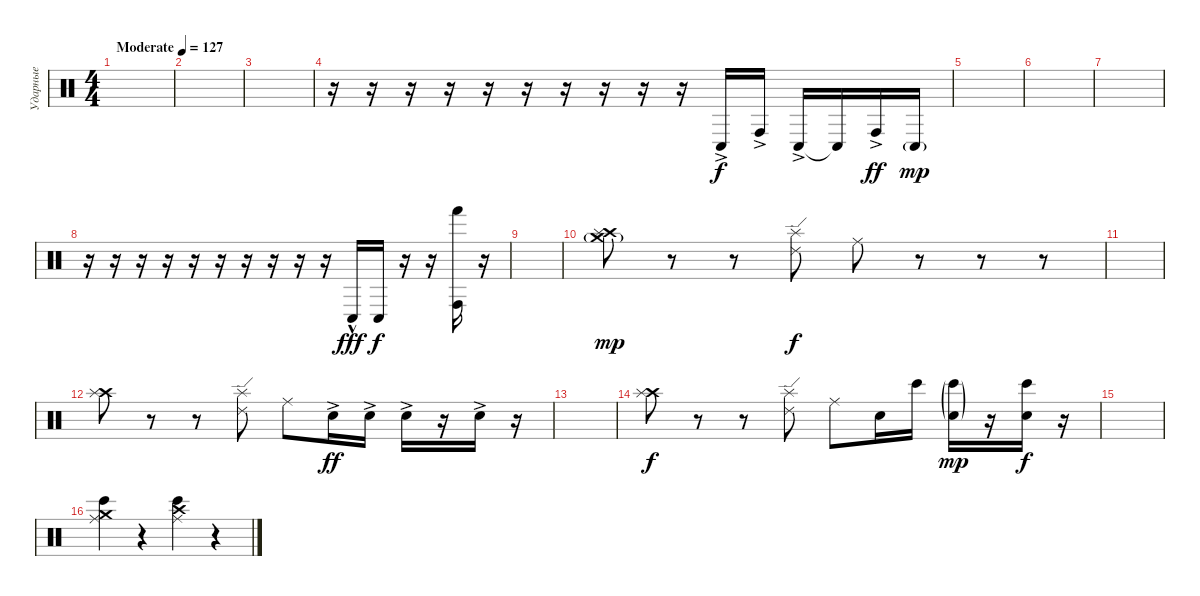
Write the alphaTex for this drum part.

\track ("Ударные" "Ударные") {instrument percussion}
\staff {score}
\articulation defaults
\ts (4 4)
\tempo (127 "Moderate")
\clef neutral
\ks c
|
|
|
r.16 r.16 r.16 r.16 r.16 r.16 r.16 r.16 r.16 r.16 "Conga low (hit)"{ac}.16 "Conga high (hit)"{ac}.16 "Conga low (hit)"{ac}.16 "Conga low (hit)"{t}.16{dy f} "Conga high (hit)"{ac}.16{dy ff} "Conga low (hit)"{g}.16{dy mp} |
|
|
|
r.16 r.16 r.16 r.16 r.16 r.16 r.16 r.16 r.16 r.16 "Conga low (hit)"{hac}.16{dy fff} "Conga low (hit)".16{dy f} r.16 r.16 ("Conga high (hit)" "Hand (hit)").16 r.16 |
|
("Crash medium (hit)"{g} "Crash high (hit)" "Splash (hit)").8{dy mp} r.8 r.8 ("Splash (hit)" "Ride (edge) 2").8{dy f} "Ride (middle)".8 r.8 r.8 r.8 |
|
("Crash high (hit)" "Splash (hit)").8 r.8 r.8 ("Splash (hit)" "Ride (edge) 2").8 "Ride (middle)".8 "Hand Clap (hit)"{ac}.16{dy ff} "Hand Clap (hit)"{ac}.16 "Hand Clap (hit)"{ac}.16 r.16 "Hand Clap (hit)"{ac}.16 r.16 |
|
("Crash high (hit)" "Splash (hit)").8{dy f} r.8 r.8 ("Splash (hit)" "Ride (edge) 2").8 "Ride (middle)".8 "Hand Clap (hit)".16 "Bongo High (hit)".16 ("Hand Clap (hit)"{g} "Bongo High (hit)"{g}).16{dy mp} r.16 ("Hand Clap (hit)" "Bongo High (hit)").16{dy f} r.16 |
|
("Crash medium (hit)" "Ride (middle)" "Bongo High (hit)").4 r.4 ("Crash high (hit)" "Ride (middle)" "Bongo High (hit)").4 r.4
